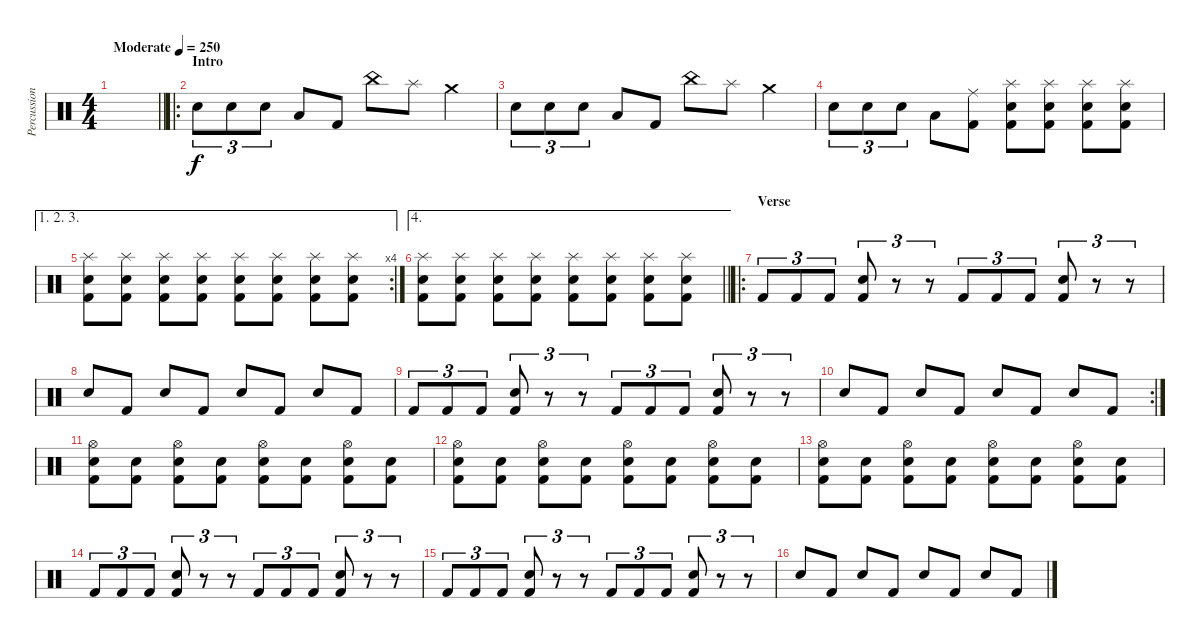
\track ("Percussion" "Percussion") {instrument percussion}
\staff {score}
\articulation defaults
\ts (4 4)
\tempo (250 "Moderate")
\clef neutral
\barLineRight lightlight
\ks c
|
\ro
\section ("" "Intro")
"Electric Snare (hit)".8{tu (3 2)} "Electric Snare (hit)".8{tu (3 2)} "Electric Snare (hit)".8{tu (3 2)} "Low Tom (hit)".8 "Kick (hit) 2".8 "China (hit)".8 "Splash (hit)".8 "Crash medium (hit)".4 |
"Electric Snare (hit)".8{tu (3 2)} "Electric Snare (hit)".8{tu (3 2)} "Electric Snare (hit)".8{tu (3 2)} "Low Tom (hit)".8 "Kick (hit) 2".8 "China (hit)".8 "Splash (hit)".8 "Crash medium (hit)".4 |
"Electric Snare (hit)".8{tu (3 2)} "Electric Snare (hit)".8{tu (3 2)} "Electric Snare (hit)".8{tu (3 2)} "Low Tom (hit)".8 ("Ride (middle)" "Kick (hit) 2").8 ("Splash (hit)" "Electric Snare (hit)" "Kick (hit) 2").8 ("Splash (hit)" "Electric Snare (hit)" "Kick (hit) 2").8 ("Splash (hit)" "Electric Snare (hit)" "Kick (hit) 2").8 ("Splash (hit)" "Electric Snare (hit)" "Kick (hit) 2").8 |
\ae (1 2 3)
\rc 4
("Splash (hit)" "Electric Snare (hit)" "Kick (hit) 2").8 ("Splash (hit)" "Electric Snare (hit)" "Kick (hit) 2").8 ("Splash (hit)" "Electric Snare (hit)" "Kick (hit) 2").8 ("Splash (hit)" "Electric Snare (hit)" "Kick (hit) 2").8 ("Splash (hit)" "Electric Snare (hit)" "Kick (hit) 2").8 ("Splash (hit)" "Electric Snare (hit)" "Kick (hit) 2").8 ("Splash (hit)" "Electric Snare (hit)" "Kick (hit) 2").8 ("Splash (hit)" "Electric Snare (hit)" "Kick (hit) 2").8 |
\ae 4
\barLineRight lightlight
("Splash (hit)" "Electric Snare (hit)" "Kick (hit) 2").8 ("Splash (hit)" "Electric Snare (hit)" "Kick (hit) 2").8 ("Splash (hit)" "Electric Snare (hit)" "Kick (hit) 2").8 ("Splash (hit)" "Electric Snare (hit)" "Kick (hit) 2").8 ("Splash (hit)" "Electric Snare (hit)" "Kick (hit) 2").8 ("Splash (hit)" "Electric Snare (hit)" "Kick (hit) 2").8 ("Splash (hit)" "Electric Snare (hit)" "Kick (hit) 2").8 ("Splash (hit)" "Electric Snare (hit)" "Kick (hit) 2").8 |
\ro
\section ("" "Verse ")
"Kick (hit) 2".8{tu (3 2)} "Kick (hit) 2".8{tu (3 2)} "Kick (hit) 2".8{tu (3 2)} ("Electric Snare (hit)" "Kick (hit) 2").8{tu (3 2)} r.8{tu (3 2)} r.8{tu (3 2)} "Kick (hit) 2".8{tu (3 2)} "Kick (hit) 2".8{tu (3 2)} "Kick (hit) 2".8{tu (3 2)} ("Electric Snare (hit)" "Kick (hit) 2").8{tu (3 2)} r.8{tu (3 2)} r.8{tu (3 2)} |
"Electric Snare (hit)".8 "Kick (hit) 2".8 "Electric Snare (hit)".8 "Kick (hit) 2".8 "Electric Snare (hit)".8 "Kick (hit) 2".8 "Electric Snare (hit)".8 "Kick (hit) 2".8 |
"Kick (hit) 2".8{tu (3 2)} "Kick (hit) 2".8{tu (3 2)} "Kick (hit) 2".8{tu (3 2)} ("Electric Snare (hit)" "Kick (hit) 2").8{tu (3 2)} r.8{tu (3 2)} r.8{tu (3 2)} "Kick (hit) 2".8{tu (3 2)} "Kick (hit) 2".8{tu (3 2)} "Kick (hit) 2".8{tu (3 2)} ("Electric Snare (hit)" "Kick (hit) 2").8{tu (3 2)} r.8{tu (3 2)} r.8{tu (3 2)} |
\rc 2 "Electric Snare (hit)".8 "Kick (hit) 2".8 "Electric Snare (hit)".8 "Kick (hit) 2".8 "Electric Snare (hit)".8 "Kick (hit) 2".8 "Electric Snare (hit)".8 "Kick (hit) 2".8
|
("Hi-Hat (open)" "Electric Snare (hit)" "Kick (hit) 2").8 ("Electric Snare (hit)" "Kick (hit) 2").8 ("Hi-Hat (open)" "Electric Snare (hit)" "Kick (hit) 2").8 ("Electric Snare (hit)" "Kick (hit) 2").8 ("Hi-Hat (open)" "Electric Snare (hit)" "Kick (hit) 2").8 ("Electric Snare (hit)" "Kick (hit) 2").8 ("Hi-Hat (open)" "Electric Snare (hit)" "Kick (hit) 2").8 ("Electric Snare (hit)" "Kick (hit) 2").8 |
("Hi-Hat (open)" "Electric Snare (hit)" "Kick (hit) 2").8 ("Electric Snare (hit)" "Kick (hit) 2").8 ("Hi-Hat (open)" "Electric Snare (hit)" "Kick (hit) 2").8 ("Electric Snare (hit)" "Kick (hit) 2").8 ("Hi-Hat (open)" "Electric Snare (hit)" "Kick (hit) 2").8 ("Electric Snare (hit)" "Kick (hit) 2").8 ("Hi-Hat (open)" "Electric Snare (hit)" "Kick (hit) 2").8 ("Electric Snare (hit)" "Kick (hit) 2").8 |
("Hi-Hat (open)" "Electric Snare (hit)" "Kick (hit) 2").8 ("Electric Snare (hit)" "Kick (hit) 2").8 ("Hi-Hat (open)" "Electric Snare (hit)" "Kick (hit) 2").8 ("Electric Snare (hit)" "Kick (hit) 2").8 ("Hi-Hat (open)" "Electric Snare (hit)" "Kick (hit) 2").8 ("Electric Snare (hit)" "Kick (hit) 2").8 ("Hi-Hat (open)" "Electric Snare (hit)" "Kick (hit) 2").8 ("Electric Snare (hit)" "Kick (hit) 2").8 |
"Kick (hit) 2".8{tu (3 2)} "Kick (hit) 2".8{tu (3 2)} "Kick (hit) 2".8{tu (3 2)} ("Electric Snare (hit)" "Kick (hit) 2").8{tu (3 2)} r.8{tu (3 2)} r.8{tu (3 2)} "Kick (hit) 2".8{tu (3 2)} "Kick (hit) 2".8{tu (3 2)} "Kick (hit) 2".8{tu (3 2)} ("Electric Snare (hit)" "Kick (hit) 2").8{tu (3 2)} r.8{tu (3 2)} r.8{tu (3 2)} |
"Kick (hit) 2".8{tu (3 2)} "Kick (hit) 2".8{tu (3 2)} "Kick (hit) 2".8{tu (3 2)} ("Electric Snare (hit)" "Kick (hit) 2").8{tu (3 2)} r.8{tu (3 2)} r.8{tu (3 2)} "Kick (hit) 2".8{tu (3 2)} "Kick (hit) 2".8{tu (3 2)} "Kick (hit) 2".8{tu (3 2)} ("Electric Snare (hit)" "Kick (hit) 2").8{tu (3 2)} r.8{tu (3 2)} r.8{tu (3 2)} |
"Electric Snare (hit)".8 "Kick (hit) 2".8 "Electric Snare (hit)".8 "Kick (hit) 2".8 "Electric Snare (hit)".8 "Kick (hit) 2".8 "Electric Snare (hit)".8 "Kick (hit) 2".8
